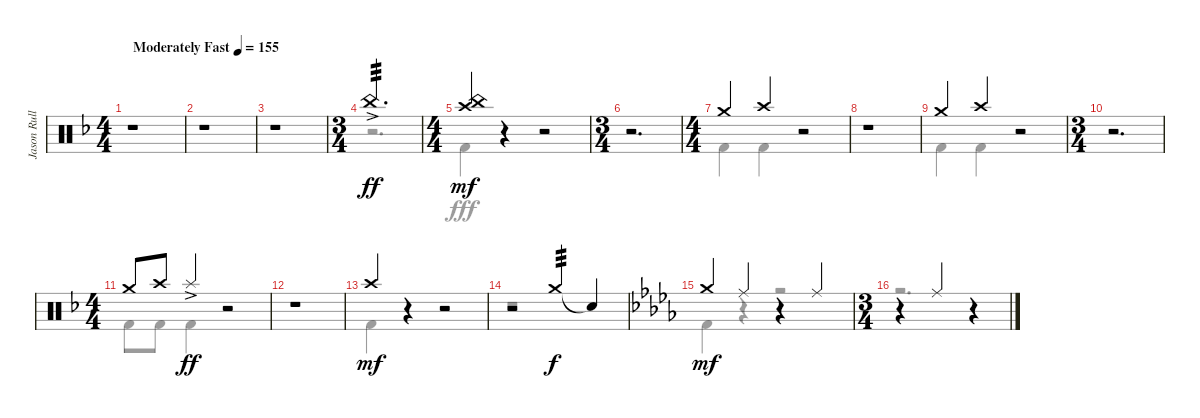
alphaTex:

\track ("Jason Rullo Drums" "Jason Rull") {instrument percussion}
\staff {score}
\articulation defaults
\voice
\ts (4 4)
\tempo (155 "Moderately Fast")
\clef neutral
\ks dminor
r.1{dy ff volume 0} |
r.1 |
r.1 |
\ts (3 4)
"China (hit)"{ac}.2{d tp 3 volume 16} |
\ts (4 4)
("Crash high (hit)" "China (hit)").4{dy mf} r.4 r.2 |
\ts (3 4)
r.2{d} |
\ts (4 4)
"Crash medium (hit)".4 "Crash high (hit)".4 r.2 |
r.1 |
"Crash medium (hit)".4 "Crash high (hit)".4 r.2 |
\ts (3 4)
r.2{d} |
\ts (4 4)
"Crash medium (hit)".8 "Crash high (hit)".8 "Splash (hit)"{ac}.4{dy ff} r.2 |
r.1 |
"Crash high (hit)".4{dy mf} r.4 r.2 |
r.2{volume 0} "Crash medium (hit)".4{tp 3 dy f volume 16} "Snare (hit)"{t}.4 |
\ks bbminor "Crash medium (hit)".4{dy mf} "Ride (middle)".4
r.4 "Ride (middle)".4 |
\ts (3 4)
r.4 "Ride (middle)".4 r.4
\voice
\clef neutral
\ottava regular
\simile none
\ks dminor
r.1{dy fff} |
r.1 |
r.1 |
r.2{d} |
"Kick (hit) 2".4 r.4 r.2 |
r.2{d} |
"Kick (hit) 2".4 "Kick (hit) 2".4 r.2 |
r.1 |
"Kick (hit) 2".4 "Kick (hit) 2".4 r.2 |
r.2{d} |
"Kick (hit) 2".8 "Kick (hit) 2".8 "Kick (hit) 2".4 r.2 |
r.1 |
"Kick (hit) 2".4 r.4 r.2 |
r.1 |
\ks bbminor "Kick (hit) 2".4
r.4 r.2 |
r.2{d}
